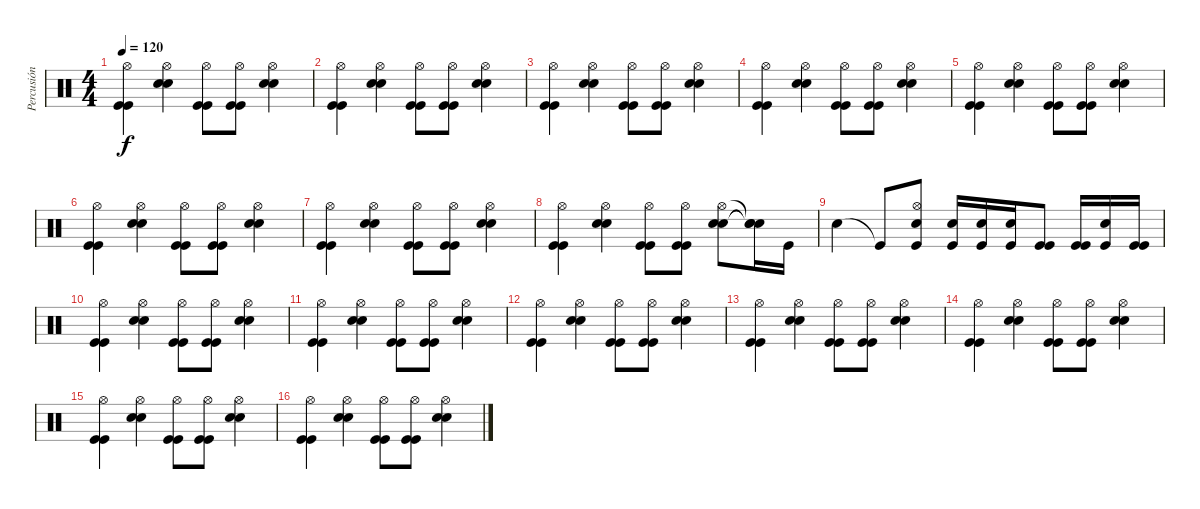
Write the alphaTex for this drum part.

\track ("Percusión" "Percusión") {instrument percussion}
\staff {score}
\articulation defaults
\ts (4 4)
\tempo 120
\clef neutral
\ks c
("Kick (hit)" "Kick (hit)" "Hi-Hat (open)").4{dy f} ("Electric Snare (hit)" "Snare (hit) 2" "Hi-Hat (open)").4 ("Kick (hit)" "Kick (hit)" "Hi-Hat (open)").8 ("Kick (hit)" "Kick (hit)" "Hi-Hat (open)").8 ("Electric Snare (hit)" "Snare (hit) 2" "Hi-Hat (open)").4 |
("Kick (hit)" "Kick (hit)" "Hi-Hat (open)").4 ("Electric Snare (hit)" "Snare (hit) 2" "Hi-Hat (open)").4 ("Kick (hit)" "Kick (hit)" "Hi-Hat (open)").8 ("Kick (hit)" "Kick (hit)" "Hi-Hat (open)").8 ("Electric Snare (hit)" "Snare (hit) 2" "Hi-Hat (open)").4 |
("Kick (hit)" "Kick (hit)" "Hi-Hat (open)").4 ("Electric Snare (hit)" "Snare (hit) 2" "Hi-Hat (open)").4 ("Kick (hit)" "Kick (hit)" "Hi-Hat (open)").8 ("Kick (hit)" "Kick (hit)" "Hi-Hat (open)").8 ("Electric Snare (hit)" "Snare (hit) 2" "Hi-Hat (open)").4 |
("Kick (hit)" "Kick (hit)" "Hi-Hat (open)").4 ("Electric Snare (hit)" "Snare (hit) 2" "Hi-Hat (open)").4 ("Kick (hit)" "Kick (hit)" "Hi-Hat (open)").8 ("Kick (hit)" "Kick (hit)" "Hi-Hat (open)").8 ("Electric Snare (hit)" "Snare (hit) 2" "Hi-Hat (open)").4 |
("Kick (hit)" "Kick (hit)" "Hi-Hat (open)").4 ("Electric Snare (hit)" "Snare (hit) 2" "Hi-Hat (open)").4 ("Kick (hit)" "Kick (hit)" "Hi-Hat (open)").8 ("Kick (hit)" "Kick (hit)" "Hi-Hat (open)").8 ("Electric Snare (hit)" "Snare (hit) 2" "Hi-Hat (open)").4 |
("Kick (hit)" "Kick (hit)" "Hi-Hat (open)").4 ("Electric Snare (hit)" "Snare (hit) 2" "Hi-Hat (open)").4 ("Kick (hit)" "Kick (hit)" "Hi-Hat (open)").8 ("Kick (hit)" "Kick (hit)" "Hi-Hat (open)").8 ("Electric Snare (hit)" "Snare (hit) 2" "Hi-Hat (open)").4 |
("Kick (hit)" "Kick (hit)" "Hi-Hat (open)").4 ("Electric Snare (hit)" "Snare (hit) 2" "Hi-Hat (open)").4 ("Kick (hit)" "Kick (hit)" "Hi-Hat (open)").8 ("Kick (hit)" "Kick (hit)" "Hi-Hat (open)").8 ("Electric Snare (hit)" "Snare (hit) 2" "Hi-Hat (open)").4 |
("Kick (hit)" "Kick (hit)" "Hi-Hat (open)").4 ("Electric Snare (hit)" "Snare (hit) 2" "Hi-Hat (open)").4 ("Kick (hit)" "Kick (hit)" "Hi-Hat (open)").8 ("Kick (hit)" "Kick (hit)" "Hi-Hat (open)").8 ("Electric Snare (hit)" "Snare (hit) 2" "Hi-Hat (open)").8 ("Snare (hit)"{t} "Snare (hit)"{t} "Snare (hit)"{t}).16 "Kick (hit)".16 |
"Electric Snare (hit)".4 "Kick (hit)"{t}.8 ("Electric Snare (hit)" "Kick (hit)" "Hi-Hat (open)").8 ("Snare (hit) 2" "Kick (hit)").16 ("Snare (hit) 2" "Kick (hit)").16 ("Snare (hit) 2" "Kick (hit)").16 ("Kick (hit)" "Kick (hit)").8 ("Kick (hit)" "Kick (hit)").16 ("Kick (hit)" "Snare (hit) 2").16 ("Kick (hit)" "Kick (hit)").16 |
("Kick (hit)" "Kick (hit)" "Hi-Hat (open)").4 ("Electric Snare (hit)" "Snare (hit) 2" "Hi-Hat (open)").4 ("Kick (hit)" "Kick (hit)" "Hi-Hat (open)").8 ("Kick (hit)" "Kick (hit)" "Hi-Hat (open)").8 ("Electric Snare (hit)" "Snare (hit) 2" "Hi-Hat (open)").4 |
("Kick (hit)" "Kick (hit)" "Hi-Hat (open)").4 ("Electric Snare (hit)" "Snare (hit) 2" "Hi-Hat (open)").4 ("Kick (hit)" "Kick (hit)" "Hi-Hat (open)").8 ("Kick (hit)" "Kick (hit)" "Hi-Hat (open)").8 ("Electric Snare (hit)" "Snare (hit) 2" "Hi-Hat (open)").4 |
("Kick (hit)" "Kick (hit)" "Hi-Hat (open)").4 ("Electric Snare (hit)" "Snare (hit) 2" "Hi-Hat (open)").4 ("Kick (hit)" "Kick (hit)" "Hi-Hat (open)").8 ("Kick (hit)" "Kick (hit)" "Hi-Hat (open)").8 ("Electric Snare (hit)" "Snare (hit) 2" "Hi-Hat (open)").4 |
("Kick (hit)" "Kick (hit)" "Hi-Hat (open)").4 ("Electric Snare (hit)" "Snare (hit) 2" "Hi-Hat (open)").4 ("Kick (hit)" "Kick (hit)" "Hi-Hat (open)").8 ("Kick (hit)" "Kick (hit)" "Hi-Hat (open)").8 ("Electric Snare (hit)" "Snare (hit) 2" "Hi-Hat (open)").4 |
("Kick (hit)" "Kick (hit)" "Hi-Hat (open)").4 ("Electric Snare (hit)" "Snare (hit) 2" "Hi-Hat (open)").4 ("Kick (hit)" "Kick (hit)" "Hi-Hat (open)").8 ("Kick (hit)" "Kick (hit)" "Hi-Hat (open)").8 ("Electric Snare (hit)" "Snare (hit) 2" "Hi-Hat (open)").4 |
("Kick (hit)" "Kick (hit)" "Hi-Hat (open)").4 ("Electric Snare (hit)" "Snare (hit) 2" "Hi-Hat (open)").4 ("Kick (hit)" "Kick (hit)" "Hi-Hat (open)").8 ("Kick (hit)" "Kick (hit)" "Hi-Hat (open)").8 ("Electric Snare (hit)" "Snare (hit) 2" "Hi-Hat (open)").4 |
("Kick (hit)" "Kick (hit)" "Hi-Hat (open)").4 ("Electric Snare (hit)" "Snare (hit) 2" "Hi-Hat (open)").4 ("Kick (hit)" "Kick (hit)" "Hi-Hat (open)").8 ("Kick (hit)" "Kick (hit)" "Hi-Hat (open)").8 ("Electric Snare (hit)" "Snare (hit) 2" "Hi-Hat (open)").4
